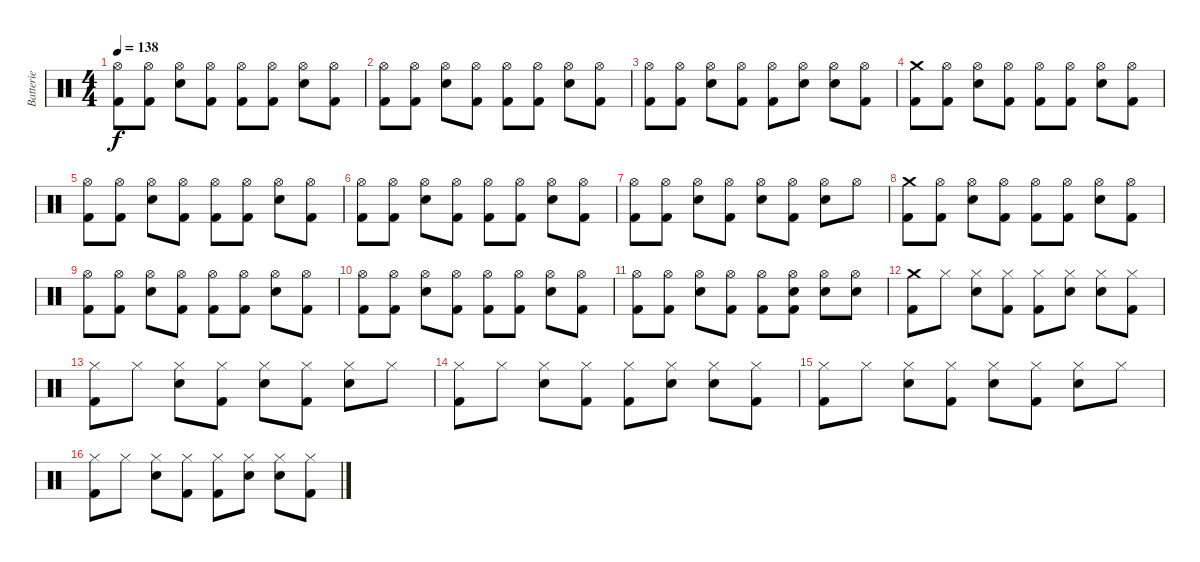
\track ("Batterie" "Batterie") {instrument percussion}
\staff {score}
\articulation defaults
\ts (4 4)
\tempo 138
\clef neutral
\ks c
("Hi-Hat (open)" "Kick (hit) 2").8{dy f} ("Hi-Hat (open)" "Kick (hit) 2").8 ("Hi-Hat (open)" "Electric Snare (hit)").8 ("Hi-Hat (open)" "Kick (hit) 2").8 ("Hi-Hat (open)" "Kick (hit) 2").8 ("Hi-Hat (open)" "Kick (hit) 2").8 ("Hi-Hat (open)" "Electric Snare (hit)").8 ("Hi-Hat (open)" "Kick (hit) 2").8 |
("Hi-Hat (open)" "Kick (hit) 2").8 ("Hi-Hat (open)" "Kick (hit) 2").8 ("Hi-Hat (open)" "Electric Snare (hit)").8 ("Hi-Hat (open)" "Kick (hit) 2").8 ("Hi-Hat (open)" "Kick (hit) 2").8 ("Hi-Hat (open)" "Kick (hit) 2").8 ("Hi-Hat (open)" "Electric Snare (hit)").8 ("Hi-Hat (open)" "Kick (hit) 2").8 |
("Hi-Hat (open)" "Kick (hit) 2").8 ("Hi-Hat (open)" "Kick (hit) 2").8 ("Hi-Hat (open)" "Electric Snare (hit)").8 ("Hi-Hat (open)" "Kick (hit) 2").8 ("Hi-Hat (open)" "Kick (hit) 2").8 ("Hi-Hat (open)" "Electric Snare (hit)").8 ("Hi-Hat (open)" "Electric Snare (hit)").8 ("Hi-Hat (open)" "Kick (hit) 2").8 |
("Crash medium (hit)" "Kick (hit) 2").8 ("Hi-Hat (open)" "Kick (hit) 2").8 ("Hi-Hat (open)" "Electric Snare (hit)").8 ("Hi-Hat (open)" "Kick (hit) 2").8 ("Hi-Hat (open)" "Kick (hit) 2").8 ("Hi-Hat (open)" "Kick (hit) 2").8 ("Hi-Hat (open)" "Electric Snare (hit)").8 ("Hi-Hat (open)" "Kick (hit) 2").8 |
("Hi-Hat (open)" "Kick (hit) 2").8 ("Hi-Hat (open)" "Kick (hit) 2").8 ("Hi-Hat (open)" "Electric Snare (hit)").8 ("Hi-Hat (open)" "Kick (hit) 2").8 ("Hi-Hat (open)" "Kick (hit) 2").8 ("Hi-Hat (open)" "Kick (hit) 2").8 ("Hi-Hat (open)" "Electric Snare (hit)").8 ("Hi-Hat (open)" "Kick (hit) 2").8 |
("Hi-Hat (open)" "Kick (hit) 2").8 ("Hi-Hat (open)" "Kick (hit) 2").8 ("Hi-Hat (open)" "Electric Snare (hit)").8 ("Hi-Hat (open)" "Kick (hit) 2").8 ("Hi-Hat (open)" "Kick (hit) 2").8 ("Hi-Hat (open)" "Kick (hit) 2").8 ("Hi-Hat (open)" "Electric Snare (hit)").8 ("Hi-Hat (open)" "Kick (hit) 2").8 |
("Hi-Hat (open)" "Kick (hit) 2").8 ("Hi-Hat (open)" "Kick (hit) 2").8 ("Hi-Hat (open)" "Electric Snare (hit)").8 ("Hi-Hat (open)" "Kick (hit) 2").8 ("Hi-Hat (open)" "Electric Snare (hit)").8 ("Hi-Hat (open)" "Kick (hit) 2").8 ("Hi-Hat (open)" "Electric Snare (hit)").8 "Hi-Hat (open)".8 |
("Crash medium (hit)" "Kick (hit) 2").8 ("Hi-Hat (open)" "Kick (hit) 2").8 ("Hi-Hat (open)" "Electric Snare (hit)").8 ("Hi-Hat (open)" "Kick (hit) 2").8 ("Hi-Hat (open)" "Kick (hit) 2").8 ("Hi-Hat (open)" "Kick (hit) 2").8 ("Hi-Hat (open)" "Electric Snare (hit)").8 ("Hi-Hat (open)" "Kick (hit) 2").8 |
("Hi-Hat (open)" "Kick (hit) 2").8 ("Hi-Hat (open)" "Kick (hit) 2").8 ("Hi-Hat (open)" "Electric Snare (hit)").8 ("Hi-Hat (open)" "Kick (hit) 2").8 ("Hi-Hat (open)" "Kick (hit) 2").8 ("Hi-Hat (open)" "Kick (hit) 2").8 ("Hi-Hat (open)" "Electric Snare (hit)").8 ("Hi-Hat (open)" "Kick (hit) 2").8 |
("Hi-Hat (open)" "Kick (hit) 2").8 ("Hi-Hat (open)" "Kick (hit) 2").8 ("Hi-Hat (open)" "Electric Snare (hit)").8 ("Hi-Hat (open)" "Kick (hit) 2").8 ("Hi-Hat (open)" "Kick (hit) 2").8 ("Hi-Hat (open)" "Kick (hit) 2").8 ("Hi-Hat (open)" "Electric Snare (hit)").8 ("Hi-Hat (open)" "Kick (hit) 2").8 |
("Hi-Hat (open)" "Kick (hit) 2").8 ("Hi-Hat (open)" "Kick (hit) 2").8 ("Hi-Hat (open)" "Electric Snare (hit)").8 ("Hi-Hat (open)" "Kick (hit) 2").8 ("Hi-Hat (open)" "Kick (hit) 2").8 ("Hi-Hat (open)" "Electric Snare (hit)" "Kick (hit) 2").8 ("Hi-Hat (open)" "Electric Snare (hit)").8 ("Hi-Hat (open)" "Electric Snare (hit)").8 |
("Crash medium (hit)" "Kick (hit) 2").8 "Hi-Hat (closed)".8 ("Hi-Hat (closed)" "Electric Snare (hit)").8 ("Hi-Hat (closed)" "Kick (hit) 2").8 ("Hi-Hat (closed)" "Kick (hit) 2").8 ("Hi-Hat (closed)" "Electric Snare (hit)").8 ("Hi-Hat (closed)" "Electric Snare (hit)").8 ("Hi-Hat (closed)" "Kick (hit) 2").8 |
("Hi-Hat (closed)" "Kick (hit) 2").8 "Hi-Hat (closed)".8 ("Hi-Hat (closed)" "Electric Snare (hit)").8 ("Hi-Hat (closed)" "Kick (hit) 2").8 ("Hi-Hat (closed)" "Electric Snare (hit)").8 ("Hi-Hat (closed)" "Kick (hit) 2").8 ("Hi-Hat (closed)" "Electric Snare (hit)").8 "Hi-Hat (closed)".8 |
("Hi-Hat (closed)" "Kick (hit) 2").8 "Hi-Hat (closed)".8 ("Hi-Hat (closed)" "Electric Snare (hit)").8 ("Hi-Hat (closed)" "Kick (hit) 2").8 ("Hi-Hat (closed)" "Kick (hit) 2").8 ("Hi-Hat (closed)" "Electric Snare (hit)").8 ("Hi-Hat (closed)" "Electric Snare (hit)").8 ("Hi-Hat (closed)" "Kick (hit) 2").8 |
("Hi-Hat (closed)" "Kick (hit) 2").8 "Hi-Hat (closed)".8 ("Hi-Hat (closed)" "Electric Snare (hit)").8 ("Hi-Hat (closed)" "Kick (hit) 2").8 ("Hi-Hat (closed)" "Electric Snare (hit)").8 ("Hi-Hat (closed)" "Kick (hit) 2").8 ("Hi-Hat (closed)" "Electric Snare (hit)").8 "Hi-Hat (closed)".8 |
("Hi-Hat (closed)" "Kick (hit) 2").8 "Hi-Hat (closed)".8 ("Hi-Hat (closed)" "Electric Snare (hit)").8 ("Hi-Hat (closed)" "Kick (hit) 2").8 ("Hi-Hat (closed)" "Kick (hit) 2").8 ("Hi-Hat (closed)" "Electric Snare (hit)").8 ("Hi-Hat (closed)" "Electric Snare (hit)").8 ("Hi-Hat (closed)" "Kick (hit) 2").8
